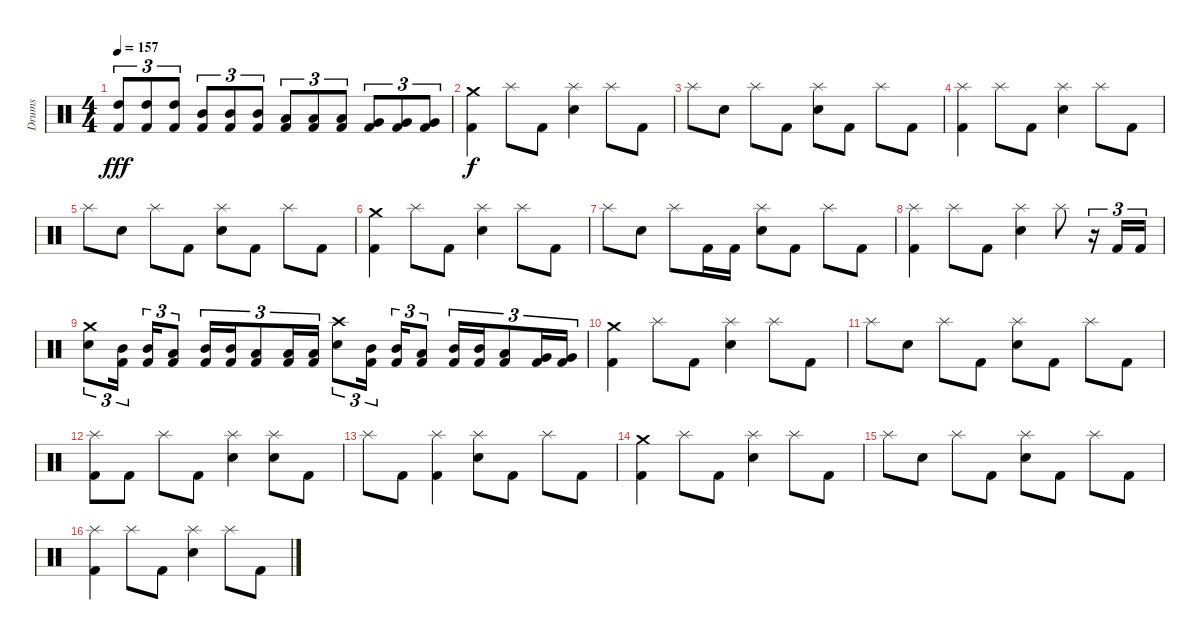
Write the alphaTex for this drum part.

\track ("Drums" "Drums") {instrument percussion}
\staff {score}
\articulation defaults
\ts (4 4)
\tempo 157
\clef neutral
\ks c
("Kick (hit) 2" "High Tom (hit)").8{tu (3 2) dy fff} ("Kick (hit) 2" "High Tom (hit)").8{tu (3 2)} ("Kick (hit) 2" "High Tom (hit)").8{tu (3 2)} ("Kick (hit) 2" "Mid Tom (hit)").8{tu (3 2)} ("Kick (hit) 2" "Mid Tom (hit)").8{tu (3 2)} ("Kick (hit) 2" "Mid Tom (hit)").8{tu (3 2)} ("Kick (hit) 2" "Low Tom (hit)").8{tu (3 2)} ("Kick (hit) 2" "Low Tom (hit)").8{tu (3 2)} ("Kick (hit) 2" "Low Tom (hit)").8{tu (3 2)} ("Kick (hit) 2" "Very Low Tom (hit)").8{tu (3 2)} ("Kick (hit) 2" "Very Low Tom (hit)").8{tu (3 2)} ("Kick (hit) 2" "Very Low Tom (hit)").8{tu (3 2)} |
("Kick (hit) 2" "Crash medium (hit)").4{dy f} "Splash (hit)".8 "Kick (hit) 2".8 ("Electric Snare (hit)" "Splash (hit)").4 "Splash (hit)".8 "Kick (hit) 2".8 |
"Splash (hit)".8 "Electric Snare (hit)".8 "Splash (hit)".8 "Kick (hit) 2".8 ("Electric Snare (hit)" "Splash (hit)").8 "Kick (hit) 2".8 "Splash (hit)".8 "Kick (hit) 2".8 |
("Kick (hit) 2" "Splash (hit)").4 "Splash (hit)".8 "Kick (hit) 2".8 ("Electric Snare (hit)" "Splash (hit)").4 "Splash (hit)".8 "Kick (hit) 2".8 |
"Splash (hit)".8 "Electric Snare (hit)".8 "Splash (hit)".8 "Kick (hit) 2".8 ("Electric Snare (hit)" "Splash (hit)").8 "Kick (hit) 2".8 "Splash (hit)".8 "Kick (hit) 2".8 |
("Kick (hit) 2" "Crash medium (hit)").4 "Splash (hit)".8 "Kick (hit) 2".8 ("Electric Snare (hit)" "Splash (hit)").4 "Splash (hit)".8 "Kick (hit) 2".8 |
"Splash (hit)".8 "Electric Snare (hit)".8 "Splash (hit)".8 "Kick (hit) 2".16 "Kick (hit) 2".16 ("Electric Snare (hit)" "Splash (hit)").8 "Kick (hit) 2".8 "Splash (hit)".8 "Kick (hit) 2".8 |
("Kick (hit) 2" "Splash (hit)").4 "Splash (hit)".8 "Kick (hit) 2".8 ("Electric Snare (hit)" "Splash (hit)").4 "Splash (hit)".8 r.16{tu (3 2)} "Kick (hit) 2".16{tu (3 2)} "Kick (hit) 2".16{tu (3 2)} |
("Electric Snare (hit)" "Crash medium (hit)").8{tu (3 2)} ("Kick (hit) 2" "Mid Tom (hit)").16{tu (3 2)} ("Kick (hit) 2" "Mid Tom (hit)").16{tu (3 2)} ("Kick (hit) 2" "Low Tom (hit)").8{tu (3 2)} ("Kick (hit) 2" "Mid Tom (hit)").16{tu (3 2)} ("Kick (hit) 2" "Mid Tom (hit)").16{tu (3 2)} ("Kick (hit) 2" "Low Tom (hit)").8{tu (3 2)} ("Kick (hit) 2" "Low Tom (hit)").16{tu (3 2)} ("Kick (hit) 2" "Low Tom (hit)").16{tu (3 2)} ("Electric Snare (hit)" "Crash high (hit)").8{tu (3 2)} ("Kick (hit) 2" "Mid Tom (hit)").16{tu (3 2)} ("Kick (hit) 2" "Mid Tom (hit)").16{tu (3 2)} ("Kick (hit) 2" "Low Tom (hit)").8{tu (3 2)} ("Kick (hit) 2" "Mid Tom (hit)").16{tu (3 2)} ("Kick (hit) 2" "Mid Tom (hit)").16{tu (3 2)} ("Kick (hit) 2" "Low Tom (hit)").8{tu (3 2)} ("Kick (hit) 2" "Very Low Tom (hit)").16{tu (3 2)} ("Kick (hit) 2" "Very Low Tom (hit)").16{tu (3 2)} |
("Kick (hit) 2" "Crash medium (hit)").4 "Splash (hit)".8 "Kick (hit) 2".8 ("Electric Snare (hit)" "Splash (hit)").4 "Splash (hit)".8 "Kick (hit) 2".8 |
"Splash (hit)".8 "Electric Snare (hit)".8 "Splash (hit)".8 "Kick (hit) 2".8 ("Electric Snare (hit)" "Splash (hit)").8 "Kick (hit) 2".8 "Splash (hit)".8 "Kick (hit) 2".8 |
("Kick (hit) 2" "Splash (hit)").8 "Kick (hit) 2".8 "Splash (hit)".8 "Kick (hit) 2".8 ("Electric Snare (hit)" "Splash (hit)").4 ("Electric Snare (hit)" "Splash (hit)").8 "Kick (hit) 2".8 |
"Splash (hit)".8 "Kick (hit) 2".8 ("Kick (hit) 2" "Splash (hit)").4 ("Electric Snare (hit)" "Splash (hit)").8 "Kick (hit) 2".8 "Splash (hit)".8 "Kick (hit) 2".8 |
("Kick (hit) 2" "Crash medium (hit)").4 "Splash (hit)".8 "Kick (hit) 2".8 ("Electric Snare (hit)" "Splash (hit)").4 "Splash (hit)".8 "Kick (hit) 2".8 |
"Splash (hit)".8 "Electric Snare (hit)".8 "Splash (hit)".8 "Kick (hit) 2".8 ("Electric Snare (hit)" "Splash (hit)").8 "Kick (hit) 2".8 "Splash (hit)".8 "Kick (hit) 2".8 |
("Kick (hit) 2" "Splash (hit)").4 "Splash (hit)".8 "Kick (hit) 2".8 ("Electric Snare (hit)" "Splash (hit)").4 "Splash (hit)".8 "Kick (hit) 2".8
